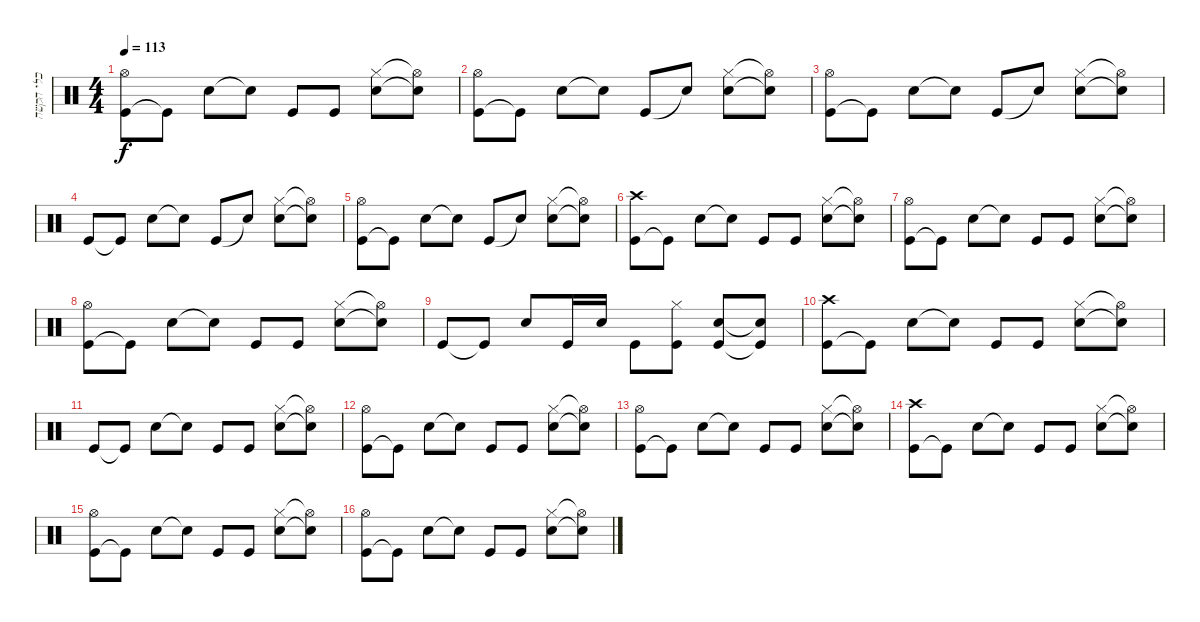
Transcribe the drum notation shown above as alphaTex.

\track ("כלי הקשה" "כלי הקשה") {instrument percussion}
\staff {score}
\articulation defaults
\ts (4 4)
\tempo 113
\clef neutral
\ks c
("Kick (hit)" "Hi-Hat (open)").8{dy f} "Kick (hit)"{t}.8 "Electric Snare (hit)".8 "Snare (hit)"{t}.8 "Kick (hit)".8 "Kick (hit)".8 ("Snare (hit) 2" "Hi-Hat (closed)").8 ("Snare (hit)"{t} "Hi-Hat (open)"{t}).8 |
("Kick (hit)" "Hi-Hat (open)").8 "Kick (hit)"{t}.8 "Electric Snare (hit)".8 "Snare (hit)"{t}.8 "Kick (hit)".8 "Snare (hit)"{t}.8 ("Electric Snare (hit)" "Hi-Hat (closed)").8 ("Snare (hit)"{t} "Hi-Hat (open)"{t}).8 |
("Kick (hit)" "Hi-Hat (open)").8 "Kick (hit)"{t}.8 "Electric Snare (hit)".8 "Snare (hit)"{t}.8 "Kick (hit)".8 "Snare (hit)"{t}.8 ("Electric Snare (hit)" "Hi-Hat (closed)").8 ("Snare (hit)"{t} "Hi-Hat (open)"{t}).8 |
"Kick (hit)".8 "Kick (hit)"{t}.8 "Electric Snare (hit)".8 "Snare (hit)"{t}.8 "Kick (hit)".8 "Snare (hit)"{t}.8 ("Electric Snare (hit)" "Hi-Hat (closed)").8 ("Snare (hit)"{t} "Hi-Hat (open)"{t}).8 |
("Kick (hit)" "Hi-Hat (open)").8 "Kick (hit)"{t}.8 "Electric Snare (hit)".8 "Snare (hit)"{t}.8 "Kick (hit)".8 "Snare (hit)"{t}.8 ("Electric Snare (hit)" "Hi-Hat (closed)").8 ("Snare (hit)"{t} "Hi-Hat (open)"{t}).8 |
("Kick (hit)" "Crash high (hit)").8 "Kick (hit)"{t}.8 "Electric Snare (hit)".8 "Snare (hit)"{t}.8 "Kick (hit)".8 "Kick (hit)".8 ("Snare (hit) 2" "Hi-Hat (closed)").8 ("Snare (hit)"{t} "Hi-Hat (open)"{t}).8 |
("Kick (hit)" "Hi-Hat (open)").8 "Kick (hit)"{t}.8 "Electric Snare (hit)".8 "Snare (hit)"{t}.8 "Kick (hit)".8 "Kick (hit)".8 ("Snare (hit) 2" "Hi-Hat (closed)").8 ("Snare (hit)"{t} "Hi-Hat (open)"{t}).8 |
("Kick (hit)" "Hi-Hat (open)").8 "Kick (hit)"{t}.8 "Electric Snare (hit)".8 "Snare (hit)"{t}.8 "Kick (hit)".8 "Kick (hit)".8 ("Snare (hit) 2" "Hi-Hat (closed)").8 ("Snare (hit)"{t} "Hi-Hat (open)"{t}).8 |
"Kick (hit)".8 "Kick (hit)"{t}.8 "Electric Snare (hit)".8 "Kick (hit)".16 "Electric Snare (hit)".16 "Kick (hit)".8 ("Kick (hit)" "Hi-Hat (closed)").8 ("Snare (hit) 2" "Kick (hit)").8 ("Snare (hit) 2"{t} "Kick (hit)"{t}).8 |
("Kick (hit)" "Crash high (hit)").8 "Kick (hit)"{t}.8 "Electric Snare (hit)".8 "Snare (hit)"{t}.8 "Kick (hit)".8 "Kick (hit)".8 ("Snare (hit) 2" "Hi-Hat (closed)").8 ("Snare (hit)"{t} "Hi-Hat (open)"{t}).8 |
"Kick (hit)".8 "Kick (hit)"{t}.8 "Electric Snare (hit)".8 "Snare (hit)"{t}.8 "Kick (hit)".8 "Kick (hit)".8 ("Snare (hit) 2" "Hi-Hat (closed)").8 ("Snare (hit)"{t} "Hi-Hat (open)"{t}).8 |
("Kick (hit)" "Hi-Hat (open)").8 "Kick (hit)"{t}.8 "Electric Snare (hit)".8 "Snare (hit)"{t}.8 "Kick (hit)".8 "Kick (hit)".8 ("Snare (hit) 2" "Hi-Hat (closed)").8 ("Snare (hit)"{t} "Hi-Hat (open)"{t}).8 |
("Kick (hit)" "Hi-Hat (open)").8 "Kick (hit)"{t}.8 "Electric Snare (hit)".8 "Snare (hit)"{t}.8 "Kick (hit)".8 "Kick (hit)".8 ("Snare (hit) 2" "Hi-Hat (closed)").8 ("Snare (hit)"{t} "Hi-Hat (open)"{t}).8 |
("Kick (hit)" "Crash high (hit)").8 "Kick (hit)"{t}.8 "Electric Snare (hit)".8 "Snare (hit)"{t}.8 "Kick (hit)".8 "Kick (hit)".8 ("Snare (hit) 2" "Hi-Hat (closed)").8 ("Snare (hit)"{t} "Hi-Hat (open)"{t}).8 |
("Kick (hit)" "Hi-Hat (open)").8 "Kick (hit)"{t}.8 "Electric Snare (hit)".8 "Snare (hit)"{t}.8 "Kick (hit)".8 "Kick (hit)".8 ("Snare (hit) 2" "Hi-Hat (closed)").8 ("Snare (hit)"{t} "Hi-Hat (open)"{t}).8 |
("Kick (hit)" "Hi-Hat (open)").8 "Kick (hit)"{t}.8 "Electric Snare (hit)".8 "Snare (hit)"{t}.8 "Kick (hit)".8 "Kick (hit)".8 ("Snare (hit) 2" "Hi-Hat (closed)").8 ("Snare (hit)"{t} "Hi-Hat (open)"{t}).8
